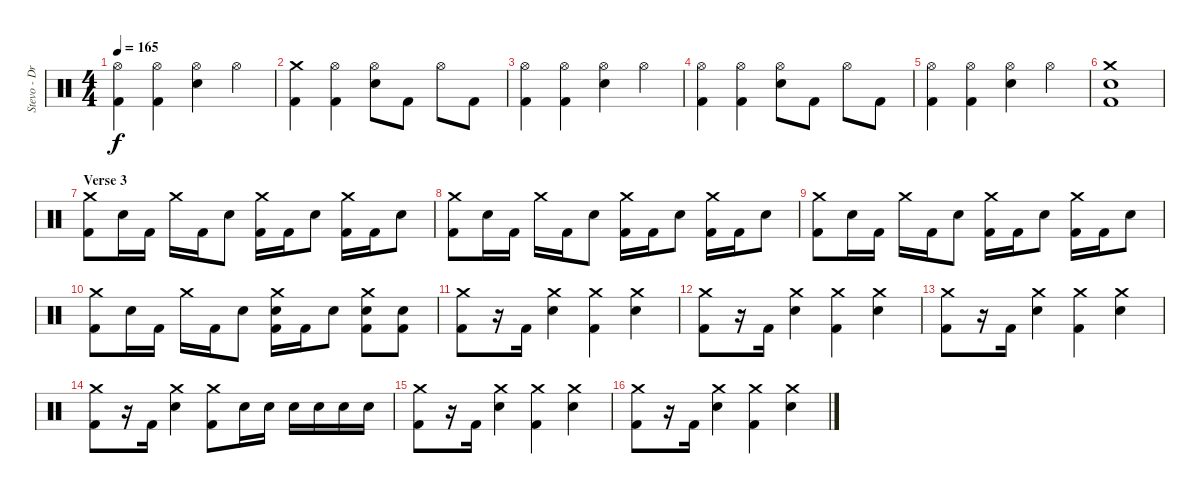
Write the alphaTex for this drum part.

\track ("Stevo - Drums" "Stevo - Dr") {instrument percussion}
\staff {score}
\articulation defaults
\ts (4 4)
\tempo 165
\clef neutral
\ks c
("Hi-Hat (open)" "Kick (hit) 2").4{dy f} ("Hi-Hat (open)" "Kick (hit) 2").4 ("Electric Snare (hit)" "Hi-Hat (open)").4 "Hi-Hat (open)".4 |
("Crash medium (hit)" "Kick (hit) 2").4 ("Hi-Hat (open)" "Kick (hit) 2").4 ("Electric Snare (hit)" "Hi-Hat (open)").8 "Kick (hit) 2".8 "Hi-Hat (open)".8 "Kick (hit) 2".8 |
("Hi-Hat (open)" "Kick (hit) 2").4 ("Hi-Hat (open)" "Kick (hit) 2").4 ("Electric Snare (hit)" "Hi-Hat (open)").4 "Hi-Hat (open)".4 |
("Hi-Hat (open)" "Kick (hit) 2").4 ("Hi-Hat (open)" "Kick (hit) 2").4 ("Electric Snare (hit)" "Hi-Hat (open)").8 "Kick (hit) 2".8 "Hi-Hat (open)".8 "Kick (hit) 2".8 |
("Hi-Hat (open)" "Kick (hit) 2").4 ("Hi-Hat (open)" "Kick (hit) 2").4 ("Electric Snare (hit)" "Hi-Hat (open)").4 "Hi-Hat (open)".4 |
("Crash medium (hit)" "Electric Snare (hit)" "Kick (hit) 2").1 |
\section ("" "Verse 3")
("Crash medium (hit)" "Kick (hit) 2").8 "Electric Snare (hit)".16 "Kick (hit) 2".16 "Crash medium (hit)".16 "Kick (hit) 2".16 "Electric Snare (hit)".8 ("Crash medium (hit)" "Kick (hit) 2").16 "Kick (hit) 2".16 "Electric Snare (hit)".8 ("Crash medium (hit)" "Kick (hit) 2").16 "Kick (hit) 2".16 "Electric Snare (hit)".8 |
("Crash medium (hit)" "Kick (hit) 2").8 "Electric Snare (hit)".16 "Kick (hit) 2".16 "Crash medium (hit)".16 "Kick (hit) 2".16 "Electric Snare (hit)".8 ("Crash medium (hit)" "Kick (hit) 2").16 "Kick (hit) 2".16 "Electric Snare (hit)".8 ("Crash medium (hit)" "Kick (hit) 2").16 "Kick (hit) 2".16 "Electric Snare (hit)".8 |
("Crash medium (hit)" "Kick (hit) 2").8 "Electric Snare (hit)".16 "Kick (hit) 2".16 "Crash medium (hit)".16 "Kick (hit) 2".16 "Electric Snare (hit)".8 ("Crash medium (hit)" "Kick (hit) 2").16 "Kick (hit) 2".16 "Electric Snare (hit)".8 ("Crash medium (hit)" "Kick (hit) 2").16 "Kick (hit) 2".16 "Electric Snare (hit)".8 |
("Crash medium (hit)" "Kick (hit) 2").8 "Electric Snare (hit)".16 "Kick (hit) 2".16 "Crash medium (hit)".16 "Kick (hit) 2".16 "Electric Snare (hit)".8 ("Crash medium (hit)" "Electric Snare (hit)" "Kick (hit) 2").16 "Kick (hit) 2".16 "Electric Snare (hit)".8 ("Crash medium (hit)" "Electric Snare (hit)" "Kick (hit) 2").8 ("Electric Snare (hit)" "Kick (hit) 2").8 |
("Crash medium (hit)" "Kick (hit) 2").8 r.16 "Kick (hit) 2".16 ("Crash medium (hit)" "Electric Snare (hit)").4 ("Crash medium (hit)" "Kick (hit) 2").4 ("Crash medium (hit)" "Electric Snare (hit)").4 |
("Crash medium (hit)" "Kick (hit) 2").8 r.16 "Kick (hit) 2".16 ("Crash medium (hit)" "Electric Snare (hit)").4 ("Crash medium (hit)" "Kick (hit) 2").4 ("Crash medium (hit)" "Electric Snare (hit)").4 |
("Crash medium (hit)" "Kick (hit) 2").8 r.16 "Kick (hit) 2".16 ("Crash medium (hit)" "Electric Snare (hit)").4 ("Crash medium (hit)" "Kick (hit) 2").4 ("Crash medium (hit)" "Electric Snare (hit)").4 |
("Crash medium (hit)" "Kick (hit) 2").8 r.16 "Kick (hit) 2".16 ("Crash medium (hit)" "Electric Snare (hit)").4 ("Crash medium (hit)" "Kick (hit) 2").8 "Electric Snare (hit)".16 "Electric Snare (hit)".16 "Electric Snare (hit)".16 "Electric Snare (hit)".16 "Electric Snare (hit)".16 "Electric Snare (hit)".16 |
("Crash medium (hit)" "Kick (hit) 2").8 r.16 "Kick (hit) 2".16 ("Crash medium (hit)" "Electric Snare (hit)").4 ("Crash medium (hit)" "Kick (hit) 2").4 ("Crash medium (hit)" "Electric Snare (hit)").4 |
("Crash medium (hit)" "Kick (hit) 2").8 r.16 "Kick (hit) 2".16 ("Crash medium (hit)" "Electric Snare (hit)").4 ("Crash medium (hit)" "Kick (hit) 2").4 ("Crash medium (hit)" "Electric Snare (hit)").4
